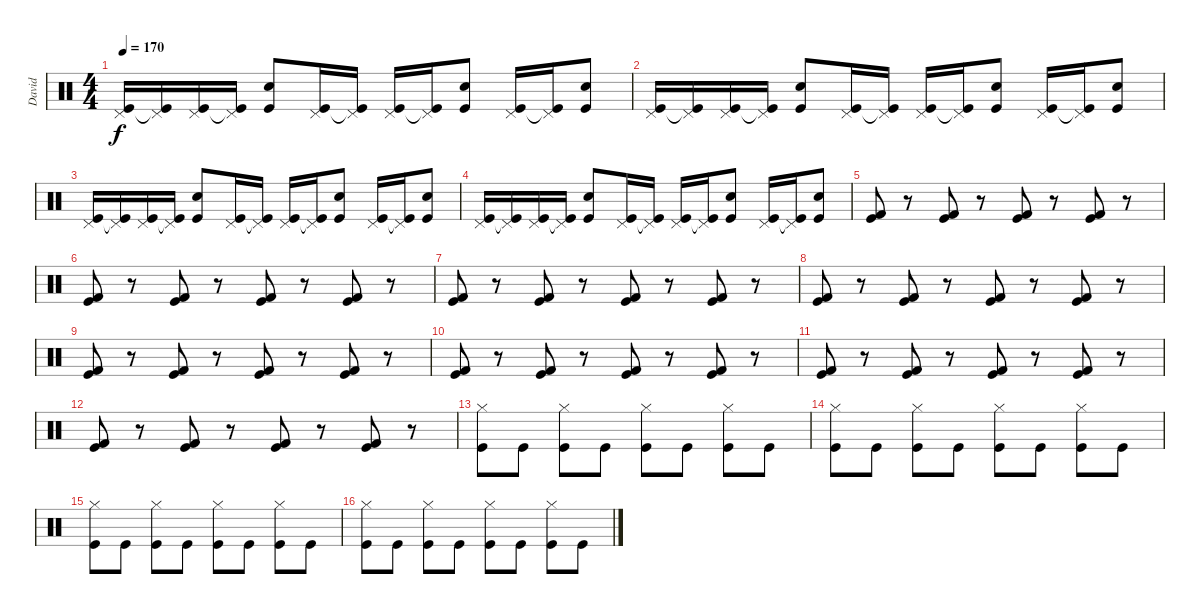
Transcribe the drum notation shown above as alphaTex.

\track ("David" "David") {instrument percussion}
\staff {score}
\articulation defaults
\ts (4 4)
\tempo 170
\clef neutral
\ks c
("Pedal Hi-Hat (hit)" "Kick (hit)").16{dy f} ("Pedal Hi-Hat (hit)" "Kick (hit)"{t}).16 ("Pedal Hi-Hat (hit)" "Kick (hit)").16 ("Pedal Hi-Hat (hit)" "Kick (hit)"{t}).16 ("Snare (hit) 2" "Kick (hit)").8 ("Pedal Hi-Hat (hit)" "Kick (hit)").16 ("Pedal Hi-Hat (hit)" "Kick (hit)"{t}).16 ("Pedal Hi-Hat (hit)" "Kick (hit)").16 ("Pedal Hi-Hat (hit)" "Kick (hit)"{t}).16 ("Snare (hit) 2" "Kick (hit)").8 ("Pedal Hi-Hat (hit)" "Kick (hit)").16 ("Pedal Hi-Hat (hit)" "Kick (hit)"{t}).16 ("Snare (hit) 2" "Kick (hit)").8 |
("Pedal Hi-Hat (hit)" "Kick (hit)").16 ("Pedal Hi-Hat (hit)" "Kick (hit)"{t}).16 ("Pedal Hi-Hat (hit)" "Kick (hit)").16 ("Pedal Hi-Hat (hit)" "Kick (hit)"{t}).16 ("Snare (hit) 2" "Kick (hit)").8 ("Pedal Hi-Hat (hit)" "Kick (hit)").16 ("Pedal Hi-Hat (hit)" "Kick (hit)"{t}).16 ("Pedal Hi-Hat (hit)" "Kick (hit)").16 ("Pedal Hi-Hat (hit)" "Kick (hit)"{t}).16 ("Snare (hit) 2" "Kick (hit)").8 ("Pedal Hi-Hat (hit)" "Kick (hit)").16 ("Pedal Hi-Hat (hit)" "Kick (hit)"{t}).16 ("Snare (hit) 2" "Kick (hit)").8 |
("Pedal Hi-Hat (hit)" "Kick (hit)").16 ("Pedal Hi-Hat (hit)" "Kick (hit)"{t}).16 ("Pedal Hi-Hat (hit)" "Kick (hit)").16 ("Pedal Hi-Hat (hit)" "Kick (hit)"{t}).16 ("Snare (hit) 2" "Kick (hit)").8 ("Pedal Hi-Hat (hit)" "Kick (hit)").16 ("Pedal Hi-Hat (hit)" "Kick (hit)"{t}).16 ("Pedal Hi-Hat (hit)" "Kick (hit)").16 ("Pedal Hi-Hat (hit)" "Kick (hit)"{t}).16 ("Snare (hit) 2" "Kick (hit)").8 ("Pedal Hi-Hat (hit)" "Kick (hit)").16 ("Pedal Hi-Hat (hit)" "Kick (hit)"{t}).16 ("Snare (hit) 2" "Kick (hit)").8 |
("Pedal Hi-Hat (hit)" "Kick (hit)").16 ("Pedal Hi-Hat (hit)" "Kick (hit)"{t}).16 ("Pedal Hi-Hat (hit)" "Kick (hit)").16 ("Pedal Hi-Hat (hit)" "Kick (hit)"{t}).16 ("Snare (hit) 2" "Kick (hit)").8 ("Pedal Hi-Hat (hit)" "Kick (hit)").16 ("Pedal Hi-Hat (hit)" "Kick (hit)"{t}).16 ("Pedal Hi-Hat (hit)" "Kick (hit)").16 ("Pedal Hi-Hat (hit)" "Kick (hit)"{t}).16 ("Snare (hit) 2" "Kick (hit)").8 ("Pedal Hi-Hat (hit)" "Kick (hit)").16 ("Pedal Hi-Hat (hit)" "Kick (hit)"{t}).16 ("Snare (hit) 2" "Kick (hit)").8 |
("Kick (hit) 2" "Kick (hit)").8 r.8 ("Kick (hit) 2" "Kick (hit)").8 r.8 ("Kick (hit) 2" "Kick (hit)").8 r.8 ("Kick (hit) 2" "Kick (hit)").8 r.8 |
("Kick (hit) 2" "Kick (hit)").8 r.8 ("Kick (hit) 2" "Kick (hit)").8 r.8 ("Kick (hit) 2" "Kick (hit)").8 r.8 ("Kick (hit) 2" "Kick (hit)").8 r.8 |
("Kick (hit) 2" "Kick (hit)").8 r.8 ("Kick (hit) 2" "Kick (hit)").8 r.8 ("Kick (hit) 2" "Kick (hit)").8 r.8 ("Kick (hit) 2" "Kick (hit)").8 r.8 |
("Kick (hit) 2" "Kick (hit)").8 r.8 ("Kick (hit) 2" "Kick (hit)").8 r.8 ("Kick (hit) 2" "Kick (hit)").8 r.8 ("Kick (hit) 2" "Kick (hit)").8 r.8 |
("Kick (hit) 2" "Kick (hit)").8 r.8 ("Kick (hit) 2" "Kick (hit)").8 r.8 ("Kick (hit) 2" "Kick (hit)").8 r.8 ("Kick (hit) 2" "Kick (hit)").8 r.8 |
("Kick (hit) 2" "Kick (hit)").8 r.8 ("Kick (hit) 2" "Kick (hit)").8 r.8 ("Kick (hit) 2" "Kick (hit)").8 r.8 ("Kick (hit) 2" "Kick (hit)").8 r.8 |
("Kick (hit) 2" "Kick (hit)").8 r.8 ("Kick (hit) 2" "Kick (hit)").8 r.8 ("Kick (hit) 2" "Kick (hit)").8 r.8 ("Kick (hit) 2" "Kick (hit)").8 r.8 |
("Kick (hit) 2" "Kick (hit)").8 r.8 ("Kick (hit) 2" "Kick (hit)").8 r.8 ("Kick (hit) 2" "Kick (hit)").8 r.8 ("Kick (hit) 2" "Kick (hit)").8 r.8 |
("Hi-Hat (closed)" "Kick (hit)").8 "Kick (hit)".8 ("Hi-Hat (closed)" "Kick (hit)").8 "Kick (hit)".8 ("Hi-Hat (closed)" "Kick (hit)").8 "Kick (hit)".8 ("Hi-Hat (closed)" "Kick (hit)").8 "Kick (hit)".8 |
("Hi-Hat (closed)" "Kick (hit)").8 "Kick (hit)".8 ("Hi-Hat (closed)" "Kick (hit)").8 "Kick (hit)".8 ("Hi-Hat (closed)" "Kick (hit)").8 "Kick (hit)".8 ("Hi-Hat (closed)" "Kick (hit)").8 "Kick (hit)".8 |
("Hi-Hat (closed)" "Kick (hit)").8 "Kick (hit)".8 ("Hi-Hat (closed)" "Kick (hit)").8 "Kick (hit)".8 ("Hi-Hat (closed)" "Kick (hit)").8 "Kick (hit)".8 ("Hi-Hat (closed)" "Kick (hit)").8 "Kick (hit)".8 |
("Hi-Hat (closed)" "Kick (hit)").8 "Kick (hit)".8 ("Hi-Hat (closed)" "Kick (hit)").8 "Kick (hit)".8 ("Hi-Hat (closed)" "Kick (hit)").8 "Kick (hit)".8 ("Hi-Hat (closed)" "Kick (hit)").8 "Kick (hit)".8
